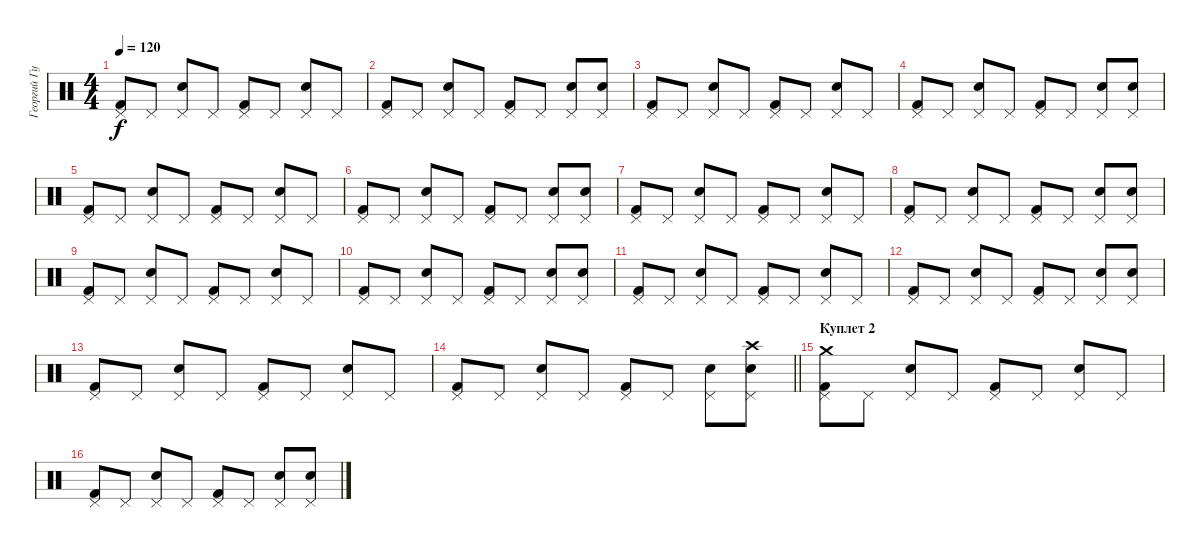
\track ("Георгий Гурьянов" "Георгий Гу") {instrument percussion}
\staff {score}
\articulation defaults
\ts (4 4)
\tempo 120
\clef neutral
\ks c
("Pedal Hi-Hat (hit)" "Kick (hit) 2").8{dy f} "Pedal Hi-Hat (hit)".8 ("Pedal Hi-Hat (hit)" "Snare (hit) 2").8 "Pedal Hi-Hat (hit)".8 ("Pedal Hi-Hat (hit)" "Kick (hit) 2").8 "Pedal Hi-Hat (hit)".8 ("Pedal Hi-Hat (hit)" "Snare (hit) 2").8 "Pedal Hi-Hat (hit)".8 |
("Pedal Hi-Hat (hit)" "Kick (hit) 2").8 "Pedal Hi-Hat (hit)".8 ("Pedal Hi-Hat (hit)" "Snare (hit) 2").8 "Pedal Hi-Hat (hit)".8 ("Pedal Hi-Hat (hit)" "Kick (hit) 2").8 "Pedal Hi-Hat (hit)".8 ("Pedal Hi-Hat (hit)" "Snare (hit) 2").8 ("Pedal Hi-Hat (hit)" "Snare (hit) 2").8 |
("Pedal Hi-Hat (hit)" "Kick (hit) 2").8 "Pedal Hi-Hat (hit)".8 ("Pedal Hi-Hat (hit)" "Snare (hit) 2").8 "Pedal Hi-Hat (hit)".8 ("Pedal Hi-Hat (hit)" "Kick (hit) 2").8 "Pedal Hi-Hat (hit)".8 ("Pedal Hi-Hat (hit)" "Snare (hit) 2").8 "Pedal Hi-Hat (hit)".8 |
("Pedal Hi-Hat (hit)" "Kick (hit) 2").8 "Pedal Hi-Hat (hit)".8 ("Pedal Hi-Hat (hit)" "Snare (hit) 2").8 "Pedal Hi-Hat (hit)".8 ("Pedal Hi-Hat (hit)" "Kick (hit) 2").8 "Pedal Hi-Hat (hit)".8 ("Pedal Hi-Hat (hit)" "Snare (hit) 2").8 ("Pedal Hi-Hat (hit)" "Snare (hit) 2").8 |
("Pedal Hi-Hat (hit)" "Kick (hit) 2").8 "Pedal Hi-Hat (hit)".8 ("Pedal Hi-Hat (hit)" "Snare (hit) 2").8 "Pedal Hi-Hat (hit)".8 ("Pedal Hi-Hat (hit)" "Kick (hit) 2").8 "Pedal Hi-Hat (hit)".8 ("Pedal Hi-Hat (hit)" "Snare (hit) 2").8 "Pedal Hi-Hat (hit)".8 |
("Pedal Hi-Hat (hit)" "Kick (hit) 2").8 "Pedal Hi-Hat (hit)".8 ("Pedal Hi-Hat (hit)" "Snare (hit) 2").8 "Pedal Hi-Hat (hit)".8 ("Pedal Hi-Hat (hit)" "Kick (hit) 2").8 "Pedal Hi-Hat (hit)".8 ("Pedal Hi-Hat (hit)" "Snare (hit) 2").8 ("Pedal Hi-Hat (hit)" "Snare (hit) 2").8 |
("Pedal Hi-Hat (hit)" "Kick (hit) 2").8 "Pedal Hi-Hat (hit)".8 ("Pedal Hi-Hat (hit)" "Snare (hit) 2").8 "Pedal Hi-Hat (hit)".8 ("Pedal Hi-Hat (hit)" "Kick (hit) 2").8 "Pedal Hi-Hat (hit)".8 ("Pedal Hi-Hat (hit)" "Snare (hit) 2").8 "Pedal Hi-Hat (hit)".8 |
("Pedal Hi-Hat (hit)" "Kick (hit) 2").8 "Pedal Hi-Hat (hit)".8 ("Pedal Hi-Hat (hit)" "Snare (hit) 2").8 "Pedal Hi-Hat (hit)".8 ("Pedal Hi-Hat (hit)" "Kick (hit) 2").8 "Pedal Hi-Hat (hit)".8 ("Pedal Hi-Hat (hit)" "Snare (hit) 2").8 ("Pedal Hi-Hat (hit)" "Snare (hit) 2").8 |
("Pedal Hi-Hat (hit)" "Kick (hit) 2").8 "Pedal Hi-Hat (hit)".8 ("Pedal Hi-Hat (hit)" "Snare (hit) 2").8 "Pedal Hi-Hat (hit)".8 ("Pedal Hi-Hat (hit)" "Kick (hit) 2").8 "Pedal Hi-Hat (hit)".8 ("Pedal Hi-Hat (hit)" "Snare (hit) 2").8 "Pedal Hi-Hat (hit)".8 |
("Pedal Hi-Hat (hit)" "Kick (hit) 2").8 "Pedal Hi-Hat (hit)".8 ("Pedal Hi-Hat (hit)" "Snare (hit) 2").8 "Pedal Hi-Hat (hit)".8 ("Pedal Hi-Hat (hit)" "Kick (hit) 2").8 "Pedal Hi-Hat (hit)".8 ("Pedal Hi-Hat (hit)" "Snare (hit) 2").8 ("Pedal Hi-Hat (hit)" "Snare (hit) 2").8 |
("Pedal Hi-Hat (hit)" "Kick (hit) 2").8 "Pedal Hi-Hat (hit)".8 ("Pedal Hi-Hat (hit)" "Snare (hit) 2").8 "Pedal Hi-Hat (hit)".8 ("Pedal Hi-Hat (hit)" "Kick (hit) 2").8 "Pedal Hi-Hat (hit)".8 ("Pedal Hi-Hat (hit)" "Snare (hit) 2").8 "Pedal Hi-Hat (hit)".8 |
("Pedal Hi-Hat (hit)" "Kick (hit) 2").8 "Pedal Hi-Hat (hit)".8 ("Pedal Hi-Hat (hit)" "Snare (hit) 2").8 "Pedal Hi-Hat (hit)".8 ("Pedal Hi-Hat (hit)" "Kick (hit) 2").8 "Pedal Hi-Hat (hit)".8 ("Pedal Hi-Hat (hit)" "Snare (hit) 2").8 ("Pedal Hi-Hat (hit)" "Snare (hit) 2").8 |
("Pedal Hi-Hat (hit)" "Kick (hit) 2").8 "Pedal Hi-Hat (hit)".8 ("Pedal Hi-Hat (hit)" "Snare (hit) 2").8 "Pedal Hi-Hat (hit)".8 ("Pedal Hi-Hat (hit)" "Kick (hit) 2").8 "Pedal Hi-Hat (hit)".8 ("Pedal Hi-Hat (hit)" "Snare (hit) 2").8 "Pedal Hi-Hat (hit)".8 |
\barLineRight lightlight
("Pedal Hi-Hat (hit)" "Kick (hit) 2").8 "Pedal Hi-Hat (hit)".8 ("Pedal Hi-Hat (hit)" "Snare (hit) 2").8 "Pedal Hi-Hat (hit)".8 ("Pedal Hi-Hat (hit)" "Kick (hit) 2").8 "Pedal Hi-Hat (hit)".8 ("Pedal Hi-Hat (hit)" "Snare (hit) 2").8 ("Pedal Hi-Hat (hit)" "Snare (hit) 2" "Crash high (hit)").8 |
\section ("" "Куплет 2")
("Pedal Hi-Hat (hit)" "Kick (hit) 2" "Crash medium (hit)").8 "Pedal Hi-Hat (hit)".8 ("Pedal Hi-Hat (hit)" "Snare (hit) 2").8 "Pedal Hi-Hat (hit)".8 ("Pedal Hi-Hat (hit)" "Kick (hit) 2").8 "Pedal Hi-Hat (hit)".8 ("Pedal Hi-Hat (hit)" "Snare (hit) 2").8 "Pedal Hi-Hat (hit)".8 |
("Pedal Hi-Hat (hit)" "Kick (hit) 2").8 "Pedal Hi-Hat (hit)".8 ("Pedal Hi-Hat (hit)" "Snare (hit) 2").8 "Pedal Hi-Hat (hit)".8 ("Pedal Hi-Hat (hit)" "Kick (hit) 2").8 "Pedal Hi-Hat (hit)".8 ("Pedal Hi-Hat (hit)" "Snare (hit) 2").8 ("Pedal Hi-Hat (hit)" "Snare (hit) 2").8
